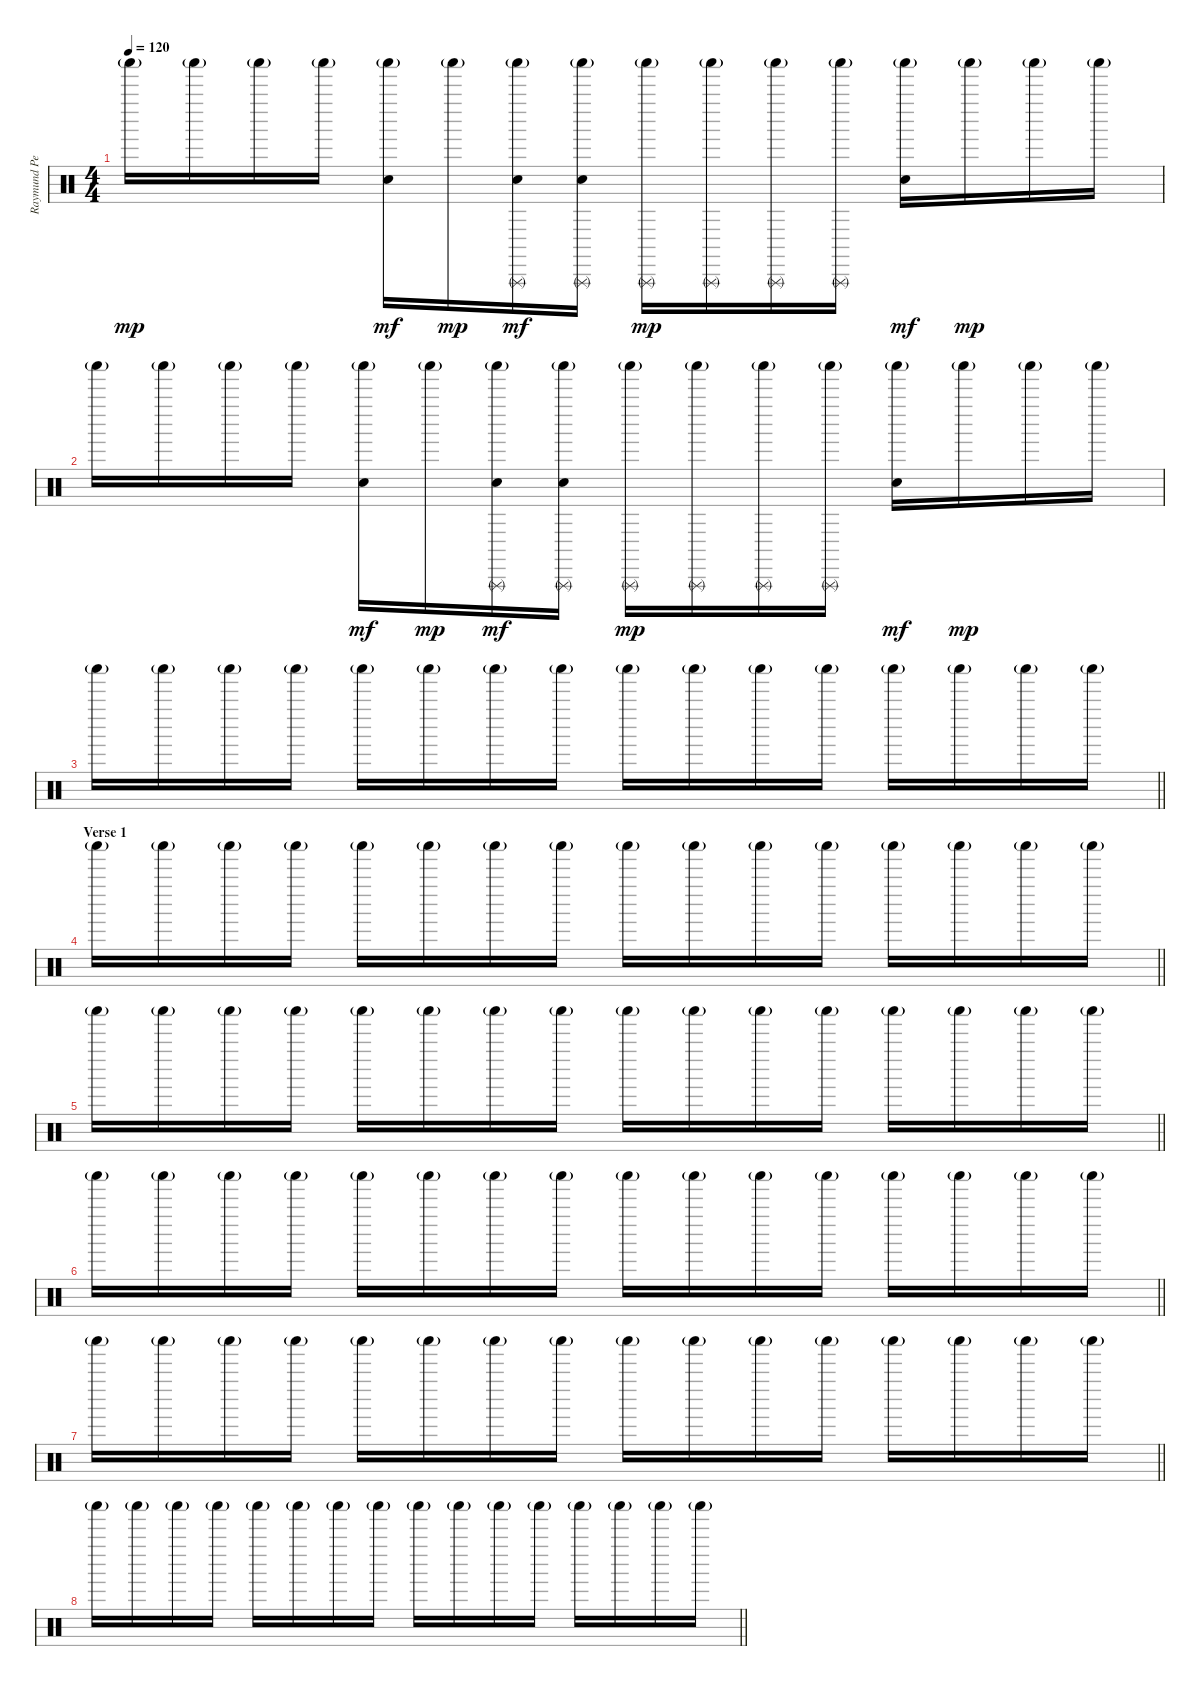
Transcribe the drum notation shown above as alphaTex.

\track ("Raymund Percussion" "Raymund Pe") {instrument percussion}
\staff {score}
\articulation defaults
\ts (4 4)
\tempo 120
\clef neutral
\ks c "Shaker (hit)"{g}.16{dy mp} "Shaker (hit)"{g}.16 "Shaker (hit)"{g}.16 "Shaker (hit)"{g}.16
("Shaker (hit)"{g} "Hand Clap (hit)").16{dy mf} "Shaker (hit)"{g}.16{dy mp} ("Shaker (hit)"{g} "Hand Clap (hit)" "Triangle (rnute)").16{dy mf} ("Shaker (hit)"{g} "Hand Clap (hit)" "Triangle (rnute)").16 ("Shaker (hit)"{g} "Triangle (rnute)").16{dy mp} ("Shaker (hit)"{g} "Triangle (rnute)").16 ("Shaker (hit)"{g} "Triangle (rnute)").16 ("Shaker (hit)"{g} "Triangle (rnute)").16 ("Shaker (hit)"{g} "Hand Clap (hit)").16{dy mf} "Shaker (hit)"{g}.16{dy mp} "Shaker (hit)"{g}.16 "Shaker (hit)"{g}.16 |
"Shaker (hit)"{g}.16 "Shaker (hit)"{g}.16 "Shaker (hit)"{g}.16 "Shaker (hit)"{g}.16 ("Shaker (hit)"{g} "Hand Clap (hit)").16{dy mf} "Shaker (hit)"{g}.16{dy mp} ("Shaker (hit)"{g} "Hand Clap (hit)" "Triangle (rnute)").16{dy mf} ("Shaker (hit)"{g} "Hand Clap (hit)" "Triangle (rnute)").16 ("Shaker (hit)"{g} "Triangle (rnute)").16{dy mp} ("Shaker (hit)"{g} "Triangle (rnute)").16 ("Shaker (hit)"{g} "Triangle (rnute)").16 ("Shaker (hit)"{g} "Triangle (rnute)").16 ("Shaker (hit)"{g} "Hand Clap (hit)").16{dy mf} "Shaker (hit)"{g}.16{dy mp} "Shaker (hit)"{g}.16 "Shaker (hit)"{g}.16 |
\barLineRight lightlight "Shaker (hit)"{g}.16 "Shaker (hit)"{g}.16 "Shaker (hit)"{g}.16 "Shaker (hit)"{g}.16 "Shaker (hit)"{g}.16 "Shaker (hit)"{g}.16 "Shaker (hit)"{g}.16 "Shaker (hit)"{g}.16 "Shaker (hit)"{g}.16 "Shaker (hit)"{g}.16 "Shaker (hit)"{g}.16 "Shaker (hit)"{g}.16 "Shaker (hit)"{g}.16 "Shaker (hit)"{g}.16 "Shaker (hit)"{g}.16 "Shaker (hit)"{g}.16
|
\section ("" "Verse 1")
\barLineRight lightlight "Shaker (hit)"{g}.16 "Shaker (hit)"{g}.16 "Shaker (hit)"{g}.16 "Shaker (hit)"{g}.16 "Shaker (hit)"{g}.16 "Shaker (hit)"{g}.16 "Shaker (hit)"{g}.16 "Shaker (hit)"{g}.16 "Shaker (hit)"{g}.16 "Shaker (hit)"{g}.16 "Shaker (hit)"{g}.16 "Shaker (hit)"{g}.16 "Shaker (hit)"{g}.16 "Shaker (hit)"{g}.16 "Shaker (hit)"{g}.16 "Shaker (hit)"{g}.16
|
\barLineRight lightlight "Shaker (hit)"{g}.16 "Shaker (hit)"{g}.16 "Shaker (hit)"{g}.16 "Shaker (hit)"{g}.16 "Shaker (hit)"{g}.16 "Shaker (hit)"{g}.16 "Shaker (hit)"{g}.16 "Shaker (hit)"{g}.16 "Shaker (hit)"{g}.16 "Shaker (hit)"{g}.16 "Shaker (hit)"{g}.16 "Shaker (hit)"{g}.16 "Shaker (hit)"{g}.16 "Shaker (hit)"{g}.16 "Shaker (hit)"{g}.16 "Shaker (hit)"{g}.16
|
\barLineRight lightlight "Shaker (hit)"{g}.16 "Shaker (hit)"{g}.16 "Shaker (hit)"{g}.16 "Shaker (hit)"{g}.16 "Shaker (hit)"{g}.16 "Shaker (hit)"{g}.16 "Shaker (hit)"{g}.16 "Shaker (hit)"{g}.16 "Shaker (hit)"{g}.16 "Shaker (hit)"{g}.16 "Shaker (hit)"{g}.16 "Shaker (hit)"{g}.16 "Shaker (hit)"{g}.16 "Shaker (hit)"{g}.16 "Shaker (hit)"{g}.16 "Shaker (hit)"{g}.16
|
\barLineRight lightlight "Shaker (hit)"{g}.16 "Shaker (hit)"{g}.16 "Shaker (hit)"{g}.16 "Shaker (hit)"{g}.16 "Shaker (hit)"{g}.16 "Shaker (hit)"{g}.16 "Shaker (hit)"{g}.16 "Shaker (hit)"{g}.16 "Shaker (hit)"{g}.16 "Shaker (hit)"{g}.16 "Shaker (hit)"{g}.16 "Shaker (hit)"{g}.16 "Shaker (hit)"{g}.16 "Shaker (hit)"{g}.16 "Shaker (hit)"{g}.16 "Shaker (hit)"{g}.16
|
\barLineRight lightlight "Shaker (hit)"{g}.16 "Shaker (hit)"{g}.16 "Shaker (hit)"{g}.16 "Shaker (hit)"{g}.16 "Shaker (hit)"{g}.16 "Shaker (hit)"{g}.16 "Shaker (hit)"{g}.16 "Shaker (hit)"{g}.16 "Shaker (hit)"{g}.16 "Shaker (hit)"{g}.16 "Shaker (hit)"{g}.16 "Shaker (hit)"{g}.16 "Shaker (hit)"{g}.16 "Shaker (hit)"{g}.16 "Shaker (hit)"{g}.16 "Shaker (hit)"{g}.16
